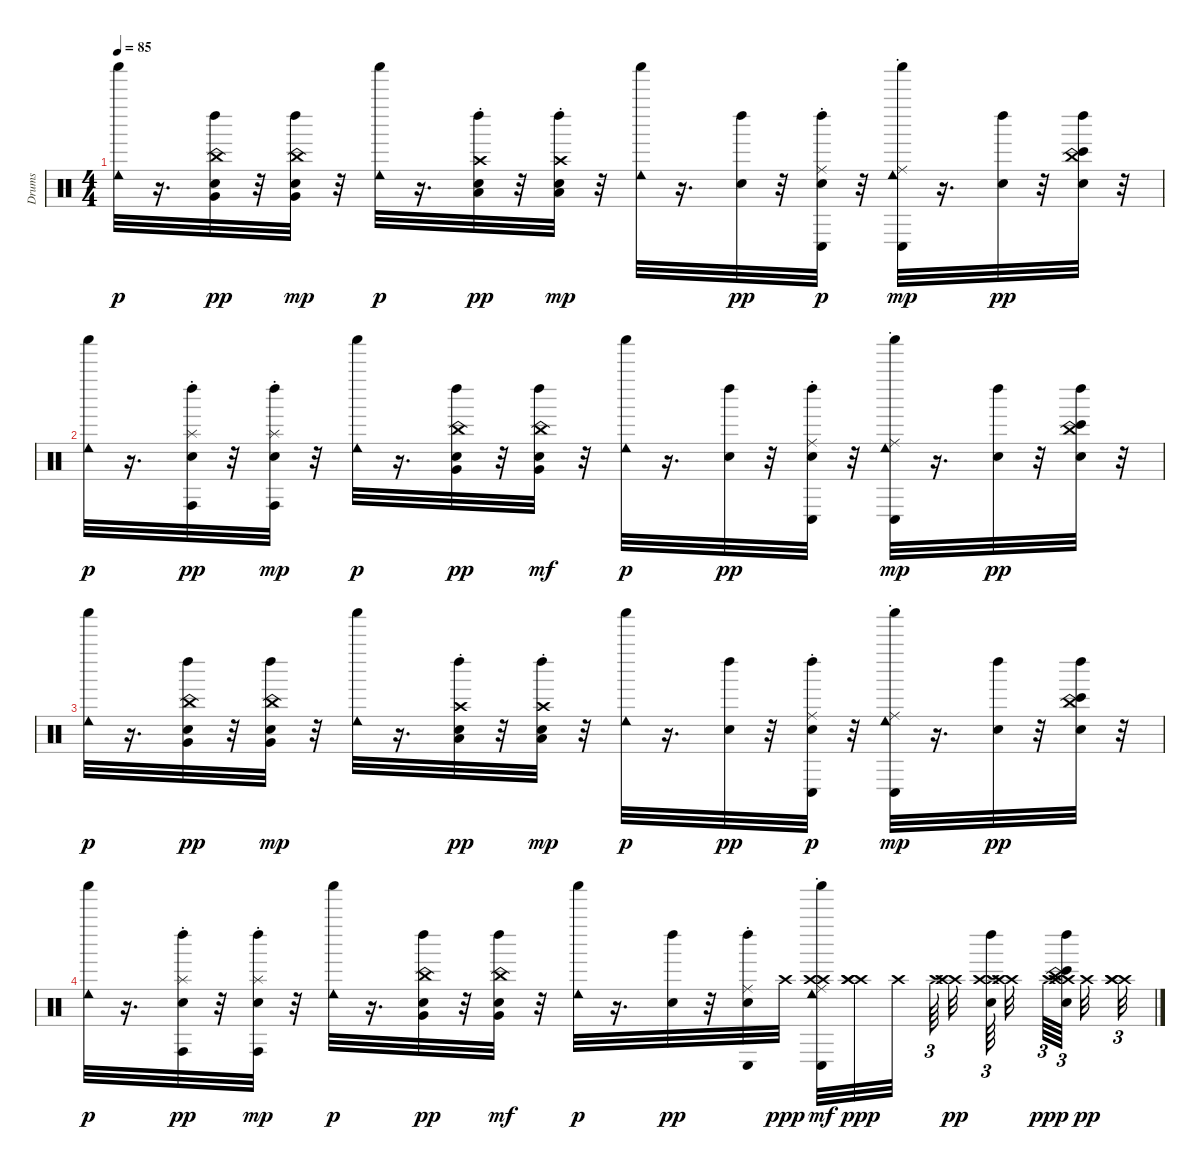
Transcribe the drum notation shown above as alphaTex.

\track ("Drums" "Drums") {instrument percussion}
\staff {score}
\articulation defaults
\ts (4 4)
\tempo 85
\clef neutral
\ks c
("Shaker (hit)" "Cowbell low (hit)").32{dy p} r.16{d} ("China (choke)" "Very Low Tom (hit)" "Left Maraca (hit)" "Snare (hit)").32{dy pp} r.32 ("Left Maraca (hit)" "China (choke)" "Snare (hit)" "Very Low Tom (hit)").32{dy mp} r.32 ("Shaker (hit)" "Cowbell low (hit)").32{dy p} r.16{d} ("Crash high (choke)" "Low Floor Tom (hit)" "Left Maraca (hit)" "Snare (hit)").32{dy pp} r.32 ("Left Maraca (hit)" "Snare (hit)" "Crash high (choke)" "Low Floor Tom (hit)").32{dy mp} r.32 ("Cowbell low (hit)" "Shaker (hit)").32 r.16{d} ("Left Maraca (hit)" "Snare (hit)").32{dy pp} r.32 ("Conga low (hit)" "Ride (choke)" "Snare (hit)" "Left Maraca (hit)").32{dy p} r.32 ("Shaker (hit)" "Cowbell low (hit)" "Conga low (hit)" "Ride (choke)").32{dy mp} r.16{d} ("Left Maraca (hit)" "Snare (hit)").32{dy pp} r.32 ("Bongo High (hit)" "Left Maraca (hit)" "China (choke)" "Snare (hit)").32 r.32 |
("Shaker (hit)" "Cowbell low (hit)").32{dy p} r.16{d} ("Conga high (hit)" "Splash (choke)" "Snare (hit)" "Left Maraca (hit)").32{dy pp} r.32 ("Left Maraca (hit)" "Snare (hit)" "Conga high (hit)" "Splash (choke)").32{dy mp} r.32 ("Shaker (hit)" "Cowbell low (hit)").32{dy p} r.16{d} ("China (choke)" "Very Low Tom (hit)" "Left Maraca (hit)" "Snare (hit)").32{dy pp} r.32 ("Snare (hit)" "Left Maraca (hit)" "Very Low Tom (hit)" "China (choke)").32{dy mf} r.32 ("Shaker (hit)" "Cowbell low (hit)").32{dy p} r.16{d} ("Left Maraca (hit)" "Snare (hit)").32{dy pp} r.32 ("Ride (choke)" "Conga low (hit)" "Snare (hit)" "Left Maraca (hit)").32 r.32 ("Shaker (hit)" "Cowbell low (hit)" "Conga low (hit)" "Ride (choke)").32{dy mp} r.16{d} ("Left Maraca (hit)" "Snare (hit)").32{dy pp} r.32 ("Bongo High (hit)" "China (choke)" "Left Maraca (hit)" "Snare (hit)").32 r.32 |
("Shaker (hit)" "Cowbell low (hit)").32{dy p} r.16{d} ("China (choke)" "Left Maraca (hit)" "Very Low Tom (hit)" "Snare (hit)").32{dy pp} r.32 ("Left Maraca (hit)" "Snare (hit)" "China (choke)" "Very Low Tom (hit)").32{dy mp} r.32 ("Cowbell low (hit)" "Shaker (hit)").32 r.16{d} ("Crash high (choke)" "Low Floor Tom (hit)" "Left Maraca (hit)" "Snare (hit)").32{dy pp} r.32 ("Left Maraca (hit)" "Snare (hit)" "Crash high (choke)" "Low Floor Tom (hit)").32{dy mp} r.32 ("Shaker (hit)" "Cowbell low (hit)").32{dy p} r.16{d} ("Left Maraca (hit)" "Snare (hit)").32{dy pp} r.32 ("Ride (choke)" "Conga low (hit)" "Snare (hit)" "Left Maraca (hit)").32{dy p} r.32 ("Shaker (hit)" "Cowbell low (hit)" "Conga low (hit)" "Ride (choke)").32{dy mp} r.16{d} ("Snare (hit)" "Left Maraca (hit)").32{dy pp} r.32 ("Bongo High (hit)" "China (choke)" "Left Maraca (hit)" "Snare (hit)").32 r.32 |
("Shaker (hit)" "Cowbell low (hit)").32{dy p} r.16{d} ("Conga high (hit)" "Splash (choke)" "Left Maraca (hit)" "Snare (hit)").32{dy pp} r.32 ("Snare (hit)" "Left Maraca (hit)" "Conga high (hit)" "Splash (choke)").32{dy mp} r.32 ("Shaker (hit)" "Cowbell low (hit)").32{dy p} r.16{d} ("China (choke)" "Very Low Tom (hit)" "Snare (hit)" "Left Maraca (hit)").32{dy pp} r.32 ("Left Maraca (hit)" "Snare (hit)" "China (choke)" "Very Low Tom (hit)").32{dy mf} r.32 ("Shaker (hit)" "Cowbell low (hit)").32{dy p} r.16{d} ("Left Maraca (hit)" "Snare (hit)").32{dy pp} r.32 ("Conga low (hit)" "Ride (choke)" "Left Maraca (hit)" "Snare (hit)").32 "Crash high (hit)".32{dy ppp} ("Crash high (hit)" "Crash high (hit)" "Shaker (hit)" "Cowbell low (hit)" "Conga low (hit)" "Ride (choke)").32{dy mf} ("Crash high (hit)" "Crash high (hit)" "Crash high (hit)").32{dy ppp} "Crash high (hit)".32 "Crash high (hit)".64{tu (3 2)} ("Crash high (hit)" "Crash high (hit)").32{dy pp} ("Crash high (hit)" "Left Maraca (hit)" "Snare (hit)" "Crash high (hit)").64{tu (3 2)} ("Crash high (hit)" "Crash high (hit)").32 "Crash high (hit)".64{tu (3 2) dy ppp} ("Crash high (hit)" "Bongo High (hit)" "China (choke)" "Left Maraca (hit)" "Snare (hit)" "Crash high (hit)").64{tu (3 2)} "Crash high (hit)".32{dy pp} ("Crash high (hit)" "Crash high (hit)" "Crash high (hit)").32{tu (3 2)}
